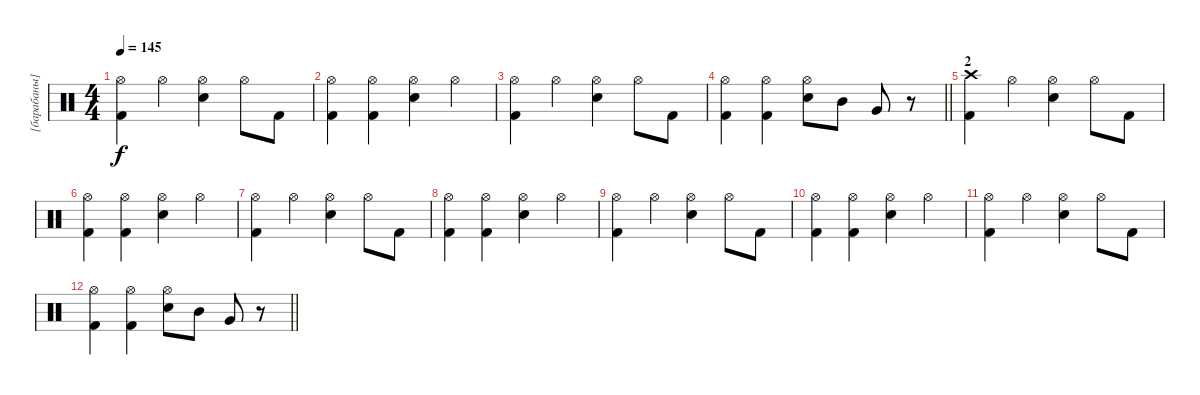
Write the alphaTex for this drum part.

\track ("[барабаны]" "[барабаны]") {instrument percussion}
\staff
\articulation defaults
\ts (4 4)
\tempo 145
\clef neutral
\ks c
("Hi-Hat (open)" "Kick (hit) 2").4{dy f} "Hi-Hat (open)".4 ("Hi-Hat (open)" "Electric Snare (hit)").4 "Hi-Hat (open)".8 "Kick (hit) 2".8 |
("Hi-Hat (open)" "Kick (hit) 2").4 ("Hi-Hat (open)" "Kick (hit) 2").4 ("Hi-Hat (open)" "Electric Snare (hit)").4 "Hi-Hat (open)".4 |
("Hi-Hat (open)" "Kick (hit) 2").4 "Hi-Hat (open)".4 ("Hi-Hat (open)" "Electric Snare (hit)").4 "Hi-Hat (open)".8 "Kick (hit) 2".8 |
\barLineRight lightlight
("Hi-Hat (open)" "Kick (hit) 2").4 ("Hi-Hat (open)" "Kick (hit) 2").4 ("Hi-Hat (open)" "Electric Snare (hit)").8 "Mid Tom (hit)".8 "Very Low Tom (hit)".8 r.8 |
\section ("" "2")
("Crash high (hit)" "Kick (hit) 2").4 "Hi-Hat (open)".4 ("Hi-Hat (open)" "Electric Snare (hit)").4 "Hi-Hat (open)".8 "Kick (hit) 2".8 |
("Hi-Hat (open)" "Kick (hit) 2").4 ("Hi-Hat (open)" "Kick (hit) 2").4 ("Hi-Hat (open)" "Electric Snare (hit)").4 "Hi-Hat (open)".4 |
("Hi-Hat (open)" "Kick (hit) 2").4 "Hi-Hat (open)".4 ("Hi-Hat (open)" "Electric Snare (hit)").4 "Hi-Hat (open)".8 "Kick (hit) 2".8 |
("Hi-Hat (open)" "Kick (hit) 2").4 ("Hi-Hat (open)" "Kick (hit) 2").4 ("Hi-Hat (open)" "Electric Snare (hit)").4 "Hi-Hat (open)".4 |
("Hi-Hat (open)" "Kick (hit) 2").4 "Hi-Hat (open)".4 ("Hi-Hat (open)" "Electric Snare (hit)").4 "Hi-Hat (open)".8 "Kick (hit) 2".8 |
("Hi-Hat (open)" "Kick (hit) 2").4 ("Hi-Hat (open)" "Kick (hit) 2").4 ("Hi-Hat (open)" "Electric Snare (hit)").4 "Hi-Hat (open)".4 |
("Hi-Hat (open)" "Kick (hit) 2").4 "Hi-Hat (open)".4 ("Hi-Hat (open)" "Electric Snare (hit)").4 "Hi-Hat (open)".8 "Kick (hit) 2".8 |
\barLineRight lightlight
("Hi-Hat (open)" "Kick (hit) 2").4 ("Hi-Hat (open)" "Kick (hit) 2").4 ("Hi-Hat (open)" "Electric Snare (hit)").8 "Mid Tom (hit)".8 "Very Low Tom (hit)".8 r.8
